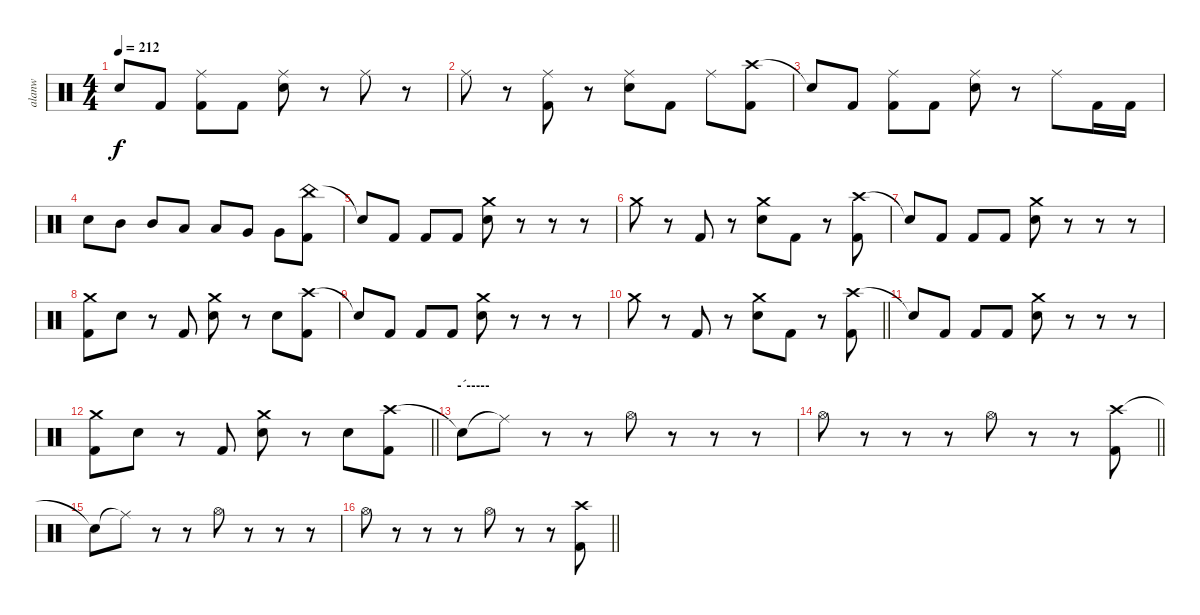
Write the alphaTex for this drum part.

\track ("alanw" "alanw") {instrument percussion}
\staff {score}
\articulation defaults
\ts (4 4)
\tempo 212
\clef neutral
\ks c "Snare (hit)"{t}.8{dy f} "Kick (hit) 2".8
("Ride (middle)" "Kick (hit) 2").8 "Kick (hit) 2".8 ("Ride (middle)" "Electric Snare (hit)").8 r.8 "Ride (middle)".8 r.8 |
"Ride (middle)".8 r.8 ("Ride (middle)" "Kick (hit) 2").8 r.8 ("Ride (middle)" "Electric Snare (hit)").8 "Kick (hit) 2".8 "Ride (middle)".8 ("Crash high (hit)" "Kick (hit) 2").8 |
"Snare (hit)"{t}.8 "Kick (hit) 2".8 ("Ride (middle)" "Kick (hit) 2").8 "Kick (hit) 2".8 ("Ride (middle)" "Electric Snare (hit)").8 r.8 "Ride (middle)".8 "Kick (hit) 2".16 "Kick (hit) 2".16 |
"Electric Snare (hit)".8 "Mid Tom (hit)".8 "Mid Tom (hit)".8 "Low Tom (hit)".8 "Low Tom (hit)".8 "Very Low Tom (hit)".8 "Very Low Tom (hit)".8 ("China (hit)" "Kick (hit) 2").8 |
"Snare (hit)"{t}.8 "Kick (hit) 2".8 "Kick (hit) 2".8 "Kick (hit) 2".8 ("Crash medium (hit)" "Electric Snare (hit)").8 r.8 r.8 r.8 |
"Crash medium (hit)".8 r.8 "Kick (hit) 2".8 r.8 ("Crash medium (hit)" "Electric Snare (hit)").8 "Kick (hit) 2".8 r.8 ("Crash high (hit)" "Kick (hit) 2").8 |
"Snare (hit)"{t}.8 "Kick (hit) 2".8 "Kick (hit) 2".8 "Kick (hit) 2".8 ("Crash medium (hit)" "Electric Snare (hit)").8 r.8 r.8 r.8 |
("Crash medium (hit)" "Kick (hit) 2").8 "Electric Snare (hit)".8 r.8 "Kick (hit) 2".8 ("Crash medium (hit)" "Electric Snare (hit)").8 r.8 "Electric Snare (hit)".8 ("Crash high (hit)" "Kick (hit) 2").8 |
"Snare (hit)"{t}.8 "Kick (hit) 2".8 "Kick (hit) 2".8 "Kick (hit) 2".8 ("Crash medium (hit)" "Electric Snare (hit)").8 r.8 r.8 r.8 |
\barLineRight lightlight "Crash medium (hit)".8
r.8 "Kick (hit) 2".8 r.8 ("Crash medium (hit)" "Electric Snare (hit)").8 "Kick (hit) 2".8 r.8 ("Crash high (hit)" "Kick (hit) 2").8 |
"Snare (hit)"{t}.8 "Kick (hit) 2".8 "Kick (hit) 2".8 "Kick (hit) 2".8 ("Crash medium (hit)" "Electric Snare (hit)").8 r.8 r.8 r.8 |
\barLineRight lightlight
("Crash medium (hit)" "Kick (hit) 2").8 "Electric Snare (hit)".8 r.8 "Kick (hit) 2".8 ("Crash medium (hit)" "Electric Snare (hit)").8 r.8 "Electric Snare (hit)".8 ("Crash high (hit)" "Kick (hit) 2").8 |
\section ("" "-´-----")
"Snare (hit)"{t}.8 "Ride (middle)"{t}.8 r.8 r.8 "Hi-Hat (open)".8 r.8 r.8 r.8 |
\barLineRight lightlight "Hi-Hat (open)".8
r.8 r.8 r.8 "Hi-Hat (open)".8 r.8 r.8 ("Crash high (hit)" "Kick (hit) 2").8 |
"Snare (hit)"{t}.8 "Ride (middle)"{t}.8 r.8 r.8 "Hi-Hat (open)".8 r.8 r.8 r.8 |
\barLineRight lightlight "Hi-Hat (open)".8
r.8 r.8 r.8 "Hi-Hat (open)".8 r.8 r.8 ("Crash high (hit)" "Kick (hit) 2").8
